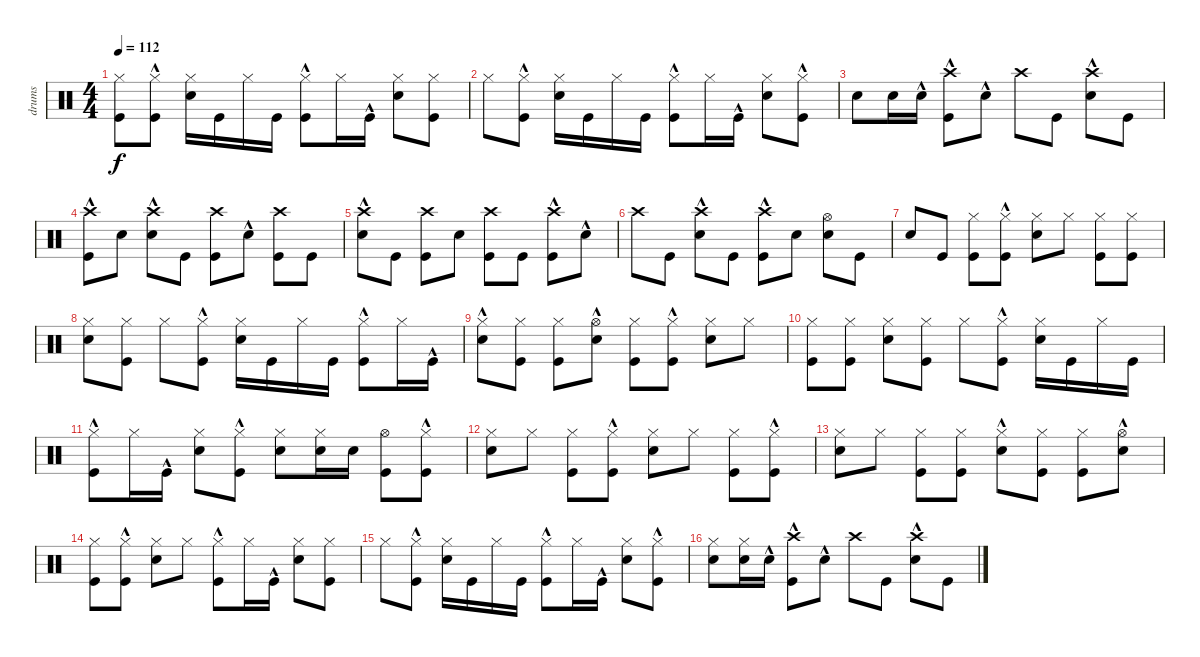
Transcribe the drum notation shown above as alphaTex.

\track ("drums" "drums") {instrument percussion}
\staff {score}
\articulation defaults
\ts (4 4)
\tempo 112
\clef neutral
\ks c
("Kick (hit)" "Hi-Hat (closed)").8{dy f} ("Kick (hit)"{hac} "Hi-Hat (closed)").8 ("Snare (hit) 2" "Hi-Hat (closed)").16 "Kick (hit)".16 "Hi-Hat (closed)".16 "Kick (hit)".16 ("Kick (hit)"{hac} "Hi-Hat (closed)").8 "Hi-Hat (closed)".16 "Kick (hit)"{hac}.16 ("Snare (hit) 2" "Hi-Hat (closed)").8 ("Kick (hit)" "Hi-Hat (closed)").8 |
"Hi-Hat (closed)".8 ("Kick (hit)"{hac} "Hi-Hat (closed)").8 ("Snare (hit) 2" "Hi-Hat (closed)").16 "Kick (hit)".16 "Hi-Hat (closed)".16 "Kick (hit)".16 ("Kick (hit)"{hac} "Hi-Hat (closed)").8 "Hi-Hat (closed)".16 "Kick (hit)"{hac}.16 ("Snare (hit) 2" "Hi-Hat (closed)").8 ("Kick (hit)"{hac} "Hi-Hat (closed)").8 |
"Snare (hit) 2".8 "Snare (hit) 2".16 "Snare (hit) 2"{hac}.16 ("Kick (hit)"{hac} "Crash high (hit)").8 "Snare (hit) 2"{hac}.8 "Crash high (hit)".8 "Kick (hit)".8 ("Snare (hit) 2"{hac} "Crash high (hit)").8 "Kick (hit)".8 |
("Kick (hit)"{hac} "Crash high (hit)").8 "Snare (hit) 2".8 ("Snare (hit) 2"{hac} "Crash high (hit)").8 "Kick (hit)".8 ("Kick (hit)" "Crash high (hit)").8 "Snare (hit) 2"{hac}.8 ("Kick (hit)" "Crash high (hit)").8 "Kick (hit)".8 |
("Snare (hit) 2"{hac} "Crash high (hit)").8 "Kick (hit)".8 ("Kick (hit)" "Crash high (hit)").8 "Snare (hit) 2".8 ("Kick (hit)" "Crash high (hit)").8 "Kick (hit)".8 ("Kick (hit)"{hac} "Crash high (hit)").8 "Snare (hit) 2"{hac}.8 |
"Crash high (hit)".8 "Kick (hit)".8 ("Snare (hit) 2"{hac} "Crash high (hit)").8 "Kick (hit)".8 ("Kick (hit)"{hac} "Crash high (hit)").8 "Snare (hit) 2".8 ("Snare (hit) 2" "Hi-Hat (open)").8 "Kick (hit)".8 |
"Snare (hit) 2".8 "Kick (hit)".8 ("Kick (hit)" "Hi-Hat (closed)").8 ("Kick (hit)"{hac} "Hi-Hat (closed)").8 ("Snare (hit) 2" "Hi-Hat (closed)").8 "Hi-Hat (closed)".8 ("Kick (hit)" "Hi-Hat (closed)").8 ("Kick (hit)" "Hi-Hat (closed)").8 |
("Snare (hit) 2" "Hi-Hat (closed)").8 ("Kick (hit)" "Hi-Hat (closed)").8 "Hi-Hat (closed)".8 ("Kick (hit)"{hac} "Hi-Hat (closed)").8 ("Snare (hit) 2" "Hi-Hat (closed)").16 "Kick (hit)".16 "Hi-Hat (closed)".16 "Kick (hit)".16 ("Kick (hit)"{hac} "Hi-Hat (closed)").8 "Hi-Hat (closed)".16 "Kick (hit)"{hac}.16 |
("Snare (hit) 2"{hac} "Hi-Hat (closed)").8 ("Kick (hit)" "Hi-Hat (closed)").8 ("Kick (hit)" "Hi-Hat (closed)").8 ("Snare (hit) 2"{hac} "Hi-Hat (open)").8 ("Kick (hit)" "Hi-Hat (closed)").8 ("Kick (hit)"{hac} "Hi-Hat (closed)").8 ("Snare (hit) 2" "Hi-Hat (closed)").8 "Hi-Hat (closed)".8 |
("Kick (hit)" "Hi-Hat (closed)").8 ("Kick (hit)" "Hi-Hat (closed)").8 ("Snare (hit) 2" "Hi-Hat (closed)").8 ("Kick (hit)" "Hi-Hat (closed)").8 "Hi-Hat (closed)".8 ("Kick (hit)"{hac} "Hi-Hat (closed)").8 ("Snare (hit) 2" "Hi-Hat (closed)").16 "Kick (hit)".16 "Hi-Hat (closed)".16 "Kick (hit)".16 |
("Kick (hit)"{hac} "Hi-Hat (closed)").8 "Hi-Hat (closed)".16 "Kick (hit)"{hac}.16 ("Snare (hit) 2" "Hi-Hat (closed)").8 ("Kick (hit)"{hac} "Hi-Hat (closed)").8 ("Snare (hit) 2" "Hi-Hat (closed)").8 ("Snare (hit) 2" "Hi-Hat (closed)").16 "Snare (hit) 2".16 ("Kick (hit)" "Hi-Hat (open)").8 ("Kick (hit)"{hac} "Hi-Hat (closed)").8 |
("Snare (hit) 2" "Hi-Hat (closed)").8 "Hi-Hat (closed)".8 ("Kick (hit)" "Hi-Hat (closed)").8 ("Kick (hit)"{hac} "Hi-Hat (closed)").8 ("Snare (hit) 2" "Hi-Hat (closed)").8 "Hi-Hat (closed)".8 ("Kick (hit)" "Hi-Hat (closed)").8 ("Kick (hit)"{hac} "Hi-Hat (closed)").8 |
("Snare (hit) 2" "Hi-Hat (closed)").8 "Hi-Hat (closed)".8 ("Kick (hit)" "Hi-Hat (closed)").8 ("Kick (hit)" "Hi-Hat (closed)").8 ("Snare (hit) 2"{hac} "Hi-Hat (closed)").8 ("Kick (hit)" "Hi-Hat (closed)").8 ("Kick (hit)" "Hi-Hat (closed)").8 ("Snare (hit) 2"{hac} "Hi-Hat (open)").8 |
("Kick (hit)" "Hi-Hat (closed)").8 ("Kick (hit)"{hac} "Hi-Hat (closed)").8 ("Snare (hit) 2" "Hi-Hat (closed)").8 "Hi-Hat (closed)".8 ("Kick (hit)"{hac} "Hi-Hat (closed)").8 "Hi-Hat (closed)".16 "Kick (hit)"{hac}.16 ("Snare (hit) 2" "Hi-Hat (closed)").8 ("Kick (hit)" "Hi-Hat (closed)").8 |
"Hi-Hat (closed)".8 ("Kick (hit)"{hac} "Hi-Hat (closed)").8 ("Snare (hit) 2" "Hi-Hat (closed)").16 "Kick (hit)".16 "Hi-Hat (closed)".16 "Kick (hit)".16 ("Kick (hit)"{hac} "Hi-Hat (closed)").8 "Hi-Hat (closed)".16 "Kick (hit)"{hac}.16 ("Snare (hit) 2" "Hi-Hat (closed)").8 ("Kick (hit)"{hac} "Hi-Hat (closed)").8 |
("Snare (hit) 2" "Hi-Hat (closed)").8 ("Snare (hit) 2" "Hi-Hat (closed)").16 "Snare (hit) 2"{hac}.16 ("Kick (hit)"{hac} "Crash high (hit)").8 "Snare (hit) 2"{hac}.8 "Crash high (hit)".8 "Kick (hit)".8 ("Snare (hit) 2"{hac} "Crash high (hit)").8 "Kick (hit)".8
